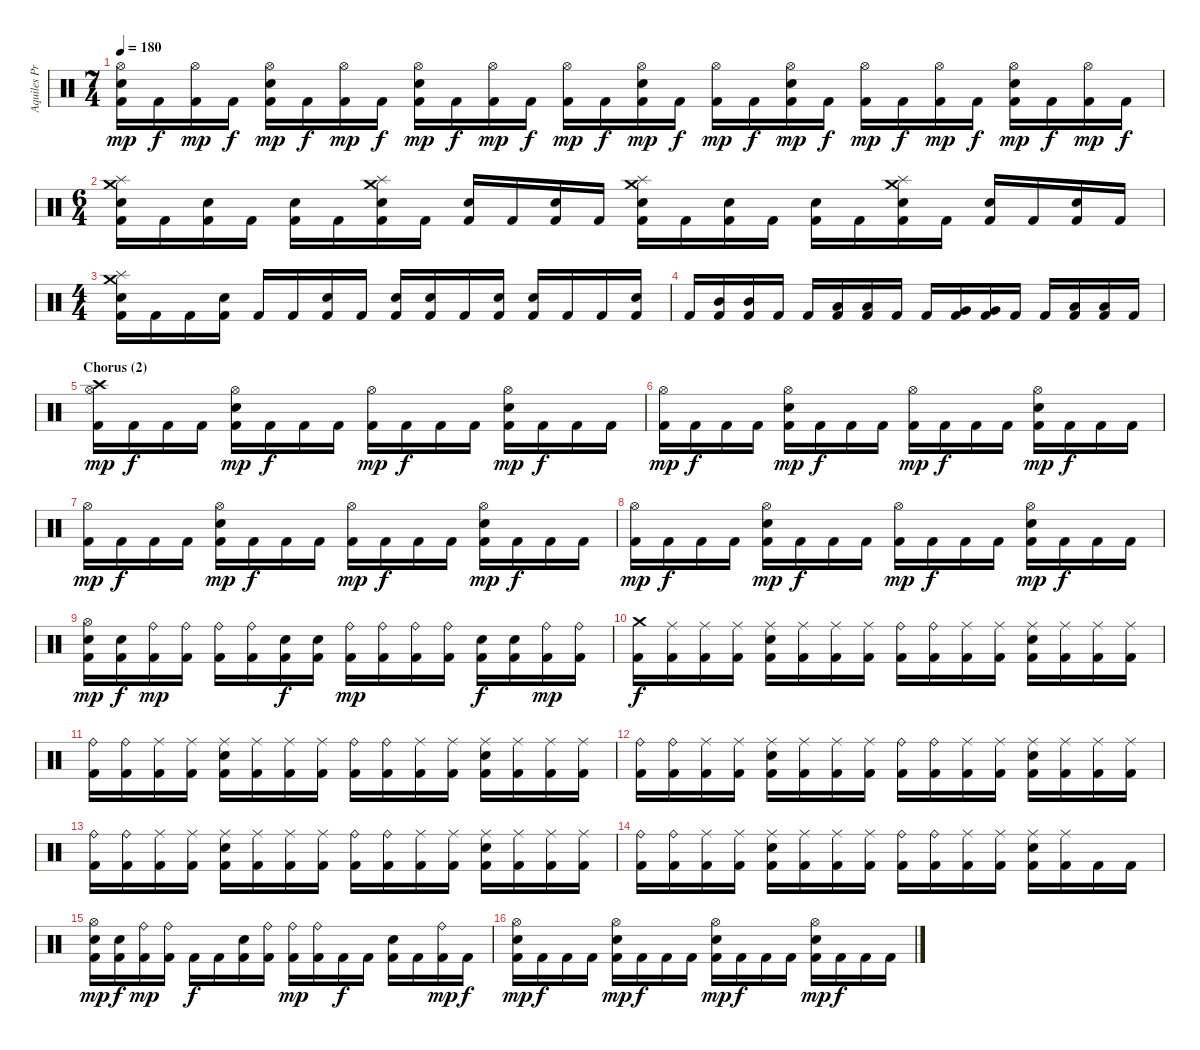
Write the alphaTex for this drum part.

\track ("Aquiles Priester" "Aquiles Pr") {instrument percussion}
\staff {score}
\articulation defaults
\ts (7 4)
\tempo 180
\clef neutral
\ks c
("Hi-Hat (open)" "Snare (hit) 2" "Kick (hit) 2").16{dy mp} "Kick (hit) 2".16{dy f} ("Hi-Hat (open)" "Kick (hit) 2").16{dy mp} "Kick (hit) 2".16{dy f} ("Hi-Hat (open)" "Snare (hit) 2" "Kick (hit) 2").16{dy mp} "Kick (hit) 2".16{dy f} ("Hi-Hat (open)" "Kick (hit) 2").16{dy mp} "Kick (hit) 2".16{dy f} ("Hi-Hat (open)" "Snare (hit) 2" "Kick (hit) 2").16{dy mp} "Kick (hit) 2".16{dy f} ("Hi-Hat (open)" "Kick (hit) 2").16{dy mp} "Kick (hit) 2".16{dy f} ("Hi-Hat (open)" "Kick (hit) 2").16{dy mp} "Kick (hit) 2".16{dy f} ("Hi-Hat (open)" "Snare (hit) 2" "Kick (hit) 2").16{dy mp} "Kick (hit) 2".16{dy f} ("Hi-Hat (open)" "Kick (hit) 2").16{dy mp} "Kick (hit) 2".16{dy f} ("Hi-Hat (open)" "Snare (hit) 2" "Kick (hit) 2").16{dy mp} "Kick (hit) 2".16{dy f} ("Hi-Hat (open)" "Kick (hit) 2").16{dy mp} "Kick (hit) 2".16{dy f} ("Hi-Hat (open)" "Kick (hit) 2").16{dy mp} "Kick (hit) 2".16{dy f} ("Hi-Hat (open)" "Snare (hit) 2" "Kick (hit) 2").16{dy mp} "Kick (hit) 2".16{dy f} ("Hi-Hat (open)" "Kick (hit) 2").16{dy mp} "Kick (hit) 2".16{dy f} |
\ts (6 4)
("Crash medium (hit)" "Splash (hit)" "Snare (hit) 2" "Kick (hit) 2").16 "Kick (hit) 2".16 ("Snare (hit) 2" "Kick (hit) 2").16 "Kick (hit) 2".16 ("Snare (hit) 2" "Kick (hit) 2").16 "Kick (hit) 2".16 ("Crash medium (hit)" "Splash (hit)" "Snare (hit) 2" "Kick (hit) 2").16 "Kick (hit) 2".16 ("Snare (hit) 2" "Kick (hit) 2").16 "Kick (hit) 2".16 ("Snare (hit) 2" "Kick (hit) 2").16 "Kick (hit) 2".16 ("Crash medium (hit)" "Splash (hit)" "Snare (hit) 2" "Kick (hit) 2").16 "Kick (hit) 2".16 ("Snare (hit) 2" "Kick (hit) 2").16 "Kick (hit) 2".16 ("Snare (hit) 2" "Kick (hit) 2").16 "Kick (hit) 2".16 ("Crash medium (hit)" "Splash (hit)" "Snare (hit) 2" "Kick (hit) 2").16 "Kick (hit) 2".16 ("Snare (hit) 2" "Kick (hit) 2").16 "Kick (hit) 2".16 ("Snare (hit) 2" "Kick (hit) 2").16 "Kick (hit) 2".16 |
\ts (4 4)
("Crash medium (hit)" "Splash (hit)" "Snare (hit) 2" "Kick (hit) 2").16 "Kick (hit) 2".16 "Kick (hit) 2".16 ("Snare (hit) 2" "Kick (hit) 2").16 "Kick (hit) 2".16 "Kick (hit) 2".16 ("Snare (hit) 2" "Kick (hit) 2").16 "Kick (hit) 2".16 ("Snare (hit) 2" "Kick (hit) 2").16 ("Snare (hit) 2" "Kick (hit) 2").16 "Kick (hit) 2".16 ("Snare (hit) 2" "Kick (hit) 2").16 ("Snare (hit) 2" "Kick (hit) 2").16 "Kick (hit) 2".16 "Kick (hit) 2".16 ("Snare (hit) 2" "Kick (hit) 2").16 |
"Kick (hit) 2".16 ("Mid Tom (hit)" "Kick (hit) 2").16 ("Mid Tom (hit)" "Kick (hit) 2").16 "Kick (hit) 2".16 "Kick (hit) 2".16 ("Low Tom (hit)" "Kick (hit) 2").16 ("Low Tom (hit)" "Kick (hit) 2").16 "Kick (hit) 2".16 "Kick (hit) 2".16 ("Very Low Tom (hit)" "Kick (hit) 2").16 ("Very Low Tom (hit)" "Kick (hit) 2").16 "Kick (hit) 2".16 "Kick (hit) 2".16 ("Low Floor Tom (hit)" "Kick (hit) 2").16 ("Low Floor Tom (hit)" "Kick (hit) 2").16 "Kick (hit) 2".16 |
\section ("" "Chorus (2)")
("Crash high (hit)" "Hi-Hat (open)" "Kick (hit) 2").16{dy mp} "Kick (hit) 2".16{dy f} "Kick (hit) 2".16 "Kick (hit) 2".16 ("Hi-Hat (open)" "Snare (hit) 2" "Kick (hit) 2").16{dy mp} "Kick (hit) 2".16{dy f} "Kick (hit) 2".16 "Kick (hit) 2".16 ("Hi-Hat (open)" "Kick (hit) 2").16{dy mp} "Kick (hit) 2".16{dy f} "Kick (hit) 2".16 "Kick (hit) 2".16 ("Hi-Hat (open)" "Snare (hit) 2" "Kick (hit) 2").16{dy mp} "Kick (hit) 2".16{dy f} "Kick (hit) 2".16 "Kick (hit) 2".16 |
("Hi-Hat (open)" "Kick (hit) 2").16{dy mp} "Kick (hit) 2".16{dy f} "Kick (hit) 2".16 "Kick (hit) 2".16 ("Hi-Hat (open)" "Snare (hit) 2" "Kick (hit) 2").16{dy mp} "Kick (hit) 2".16{dy f} "Kick (hit) 2".16 "Kick (hit) 2".16 ("Hi-Hat (open)" "Kick (hit) 2").16{dy mp} "Kick (hit) 2".16{dy f} "Kick (hit) 2".16 "Kick (hit) 2".16 ("Hi-Hat (open)" "Snare (hit) 2" "Kick (hit) 2").16{dy mp} "Kick (hit) 2".16{dy f} "Kick (hit) 2".16 "Kick (hit) 2".16 |
("Hi-Hat (open)" "Kick (hit) 2").16{dy mp} "Kick (hit) 2".16{dy f} "Kick (hit) 2".16 "Kick (hit) 2".16 ("Hi-Hat (open)" "Snare (hit) 2" "Kick (hit) 2").16{dy mp} "Kick (hit) 2".16{dy f} "Kick (hit) 2".16 "Kick (hit) 2".16 ("Hi-Hat (open)" "Kick (hit) 2").16{dy mp} "Kick (hit) 2".16{dy f} "Kick (hit) 2".16 "Kick (hit) 2".16 ("Hi-Hat (open)" "Snare (hit) 2" "Kick (hit) 2").16{dy mp} "Kick (hit) 2".16{dy f} "Kick (hit) 2".16 "Kick (hit) 2".16 |
("Hi-Hat (open)" "Kick (hit) 2").16{dy mp} "Kick (hit) 2".16{dy f} "Kick (hit) 2".16 "Kick (hit) 2".16 ("Hi-Hat (open)" "Snare (hit) 2" "Kick (hit) 2").16{dy mp} "Kick (hit) 2".16{dy f} "Kick (hit) 2".16 "Kick (hit) 2".16 ("Hi-Hat (open)" "Kick (hit) 2").16{dy mp} "Kick (hit) 2".16{dy f} "Kick (hit) 2".16 "Kick (hit) 2".16 ("Hi-Hat (open)" "Snare (hit) 2" "Kick (hit) 2").16{dy mp} "Kick (hit) 2".16{dy f} "Kick (hit) 2".16 "Kick (hit) 2".16 |
("Hi-Hat (open)" "Snare (hit) 2" "Kick (hit) 2").16{dy mp} ("Snare (hit) 2" "Kick (hit) 2").16{dy f} ("Ride (bell)" "Kick (hit) 2").16{dy mp} ("Ride (bell)" "Kick (hit) 2").16 ("Ride (bell)" "Kick (hit) 2").16 ("Ride (bell)" "Kick (hit) 2").16 ("Snare (hit) 2" "Kick (hit) 2").16{dy f} ("Snare (hit) 2" "Kick (hit) 2").16 ("Ride (bell)" "Kick (hit) 2").16{dy mp} ("Ride (bell)" "Kick (hit) 2").16 ("Ride (bell)" "Kick (hit) 2").16 ("Ride (bell)" "Kick (hit) 2").16 ("Snare (hit) 2" "Kick (hit) 2").16{dy f} ("Snare (hit) 2" "Kick (hit) 2").16 ("Ride (bell)" "Kick (hit) 2").16{dy mp} ("Ride (bell)" "Kick (hit) 2").16 |
("Crash medium (hit)" "Kick (hit) 2").16{dy f} ("Ride (middle)" "Kick (hit) 2").16 ("Ride (middle)" "Kick (hit) 2").16 ("Ride (middle)" "Kick (hit) 2").16 ("Ride (middle)" "Snare (hit) 2" "Kick (hit) 2").16 ("Ride (middle)" "Kick (hit) 2").16 ("Ride (middle)" "Kick (hit) 2").16 ("Ride (middle)" "Kick (hit) 2").16 ("Ride (bell)" "Kick (hit) 2").16 ("Ride (bell)" "Kick (hit) 2").16 ("Ride (middle)" "Kick (hit) 2").16 ("Ride (middle)" "Kick (hit) 2").16 ("Ride (middle)" "Snare (hit) 2" "Kick (hit) 2").16 ("Ride (middle)" "Kick (hit) 2").16 ("Ride (middle)" "Kick (hit) 2").16 ("Ride (middle)" "Kick (hit) 2").16 |
("Ride (bell)" "Kick (hit) 2").16 ("Ride (bell)" "Kick (hit) 2").16 ("Ride (middle)" "Kick (hit) 2").16 ("Ride (middle)" "Kick (hit) 2").16 ("Ride (middle)" "Snare (hit) 2" "Kick (hit) 2").16 ("Ride (middle)" "Kick (hit) 2").16 ("Ride (middle)" "Kick (hit) 2").16 ("Ride (middle)" "Kick (hit) 2").16 ("Ride (bell)" "Kick (hit) 2").16 ("Ride (bell)" "Kick (hit) 2").16 ("Ride (middle)" "Kick (hit) 2").16 ("Ride (middle)" "Kick (hit) 2").16 ("Ride (middle)" "Snare (hit) 2" "Kick (hit) 2").16 ("Ride (middle)" "Kick (hit) 2").16 ("Ride (middle)" "Kick (hit) 2").16 ("Ride (middle)" "Kick (hit) 2").16 |
("Ride (bell)" "Kick (hit) 2").16 ("Ride (bell)" "Kick (hit) 2").16 ("Ride (middle)" "Kick (hit) 2").16 ("Ride (middle)" "Kick (hit) 2").16 ("Ride (middle)" "Snare (hit) 2" "Kick (hit) 2").16 ("Ride (middle)" "Kick (hit) 2").16 ("Ride (middle)" "Kick (hit) 2").16 ("Ride (middle)" "Kick (hit) 2").16 ("Ride (bell)" "Kick (hit) 2").16 ("Ride (bell)" "Kick (hit) 2").16 ("Ride (middle)" "Kick (hit) 2").16 ("Ride (middle)" "Kick (hit) 2").16 ("Ride (middle)" "Snare (hit) 2" "Kick (hit) 2").16 ("Ride (middle)" "Kick (hit) 2").16 ("Ride (middle)" "Kick (hit) 2").16 ("Ride (middle)" "Kick (hit) 2").16 |
("Ride (bell)" "Kick (hit) 2").16 ("Ride (bell)" "Kick (hit) 2").16 ("Ride (middle)" "Kick (hit) 2").16 ("Ride (middle)" "Kick (hit) 2").16 ("Ride (middle)" "Snare (hit) 2" "Kick (hit) 2").16 ("Ride (middle)" "Kick (hit) 2").16 ("Ride (middle)" "Kick (hit) 2").16 ("Ride (middle)" "Kick (hit) 2").16 ("Ride (bell)" "Kick (hit) 2").16 ("Ride (bell)" "Kick (hit) 2").16 ("Ride (middle)" "Kick (hit) 2").16 ("Ride (middle)" "Kick (hit) 2").16 ("Ride (middle)" "Snare (hit) 2" "Kick (hit) 2").16 ("Ride (middle)" "Kick (hit) 2").16 ("Ride (middle)" "Kick (hit) 2").16 ("Ride (middle)" "Kick (hit) 2").16 |
("Ride (bell)" "Kick (hit) 2").16 ("Ride (bell)" "Kick (hit) 2").16 ("Ride (middle)" "Kick (hit) 2").16 ("Ride (middle)" "Kick (hit) 2").16 ("Ride (middle)" "Snare (hit) 2" "Kick (hit) 2").16 ("Ride (middle)" "Kick (hit) 2").16 ("Ride (middle)" "Kick (hit) 2").16 ("Ride (middle)" "Kick (hit) 2").16 ("Ride (bell)" "Kick (hit) 2").16 ("Ride (bell)" "Kick (hit) 2").16 ("Ride (middle)" "Kick (hit) 2").16 ("Ride (middle)" "Kick (hit) 2").16 ("Ride (middle)" "Snare (hit) 2" "Kick (hit) 2").16 ("Ride (middle)" "Kick (hit) 2").16 "Kick (hit) 2".16 "Kick (hit) 2".16 |
("Hi-Hat (open)" "Snare (hit) 2" "Kick (hit) 2").16{dy mp} ("Snare (hit) 2" "Kick (hit) 2").16{dy f} ("Ride (bell)" "Kick (hit) 2").16{dy mp} ("Ride (bell)" "Kick (hit) 2").16 "Kick (hit) 2".16{dy f} "Kick (hit) 2".16 ("Snare (hit) 2" "Kick (hit) 2").16 ("Ride (bell)" "Kick (hit) 2").16 ("Ride (bell)" "Kick (hit) 2").16{dy mp} ("Ride (bell)" "Kick (hit) 2").16 "Kick (hit) 2".16{dy f} "Kick (hit) 2".16 ("Snare (hit) 2" "Kick (hit) 2").16 "Kick (hit) 2".16 ("Ride (bell)" "Kick (hit) 2").16{dy mp} "Kick (hit) 2".16{dy f} |
("Hi-Hat (open)" "Snare (hit) 2" "Kick (hit) 2").16{dy mp} "Kick (hit) 2".16{dy f} "Kick (hit) 2".16 "Kick (hit) 2".16 ("Hi-Hat (open)" "Snare (hit) 2" "Kick (hit) 2").16{dy mp} "Kick (hit) 2".16{dy f} "Kick (hit) 2".16 "Kick (hit) 2".16 ("Hi-Hat (open)" "Snare (hit) 2" "Kick (hit) 2").16{dy mp} "Kick (hit) 2".16{dy f} "Kick (hit) 2".16 "Kick (hit) 2".16 ("Hi-Hat (open)" "Snare (hit) 2" "Kick (hit) 2").16{dy mp} "Kick (hit) 2".16{dy f} "Kick (hit) 2".16 "Kick (hit) 2".16
